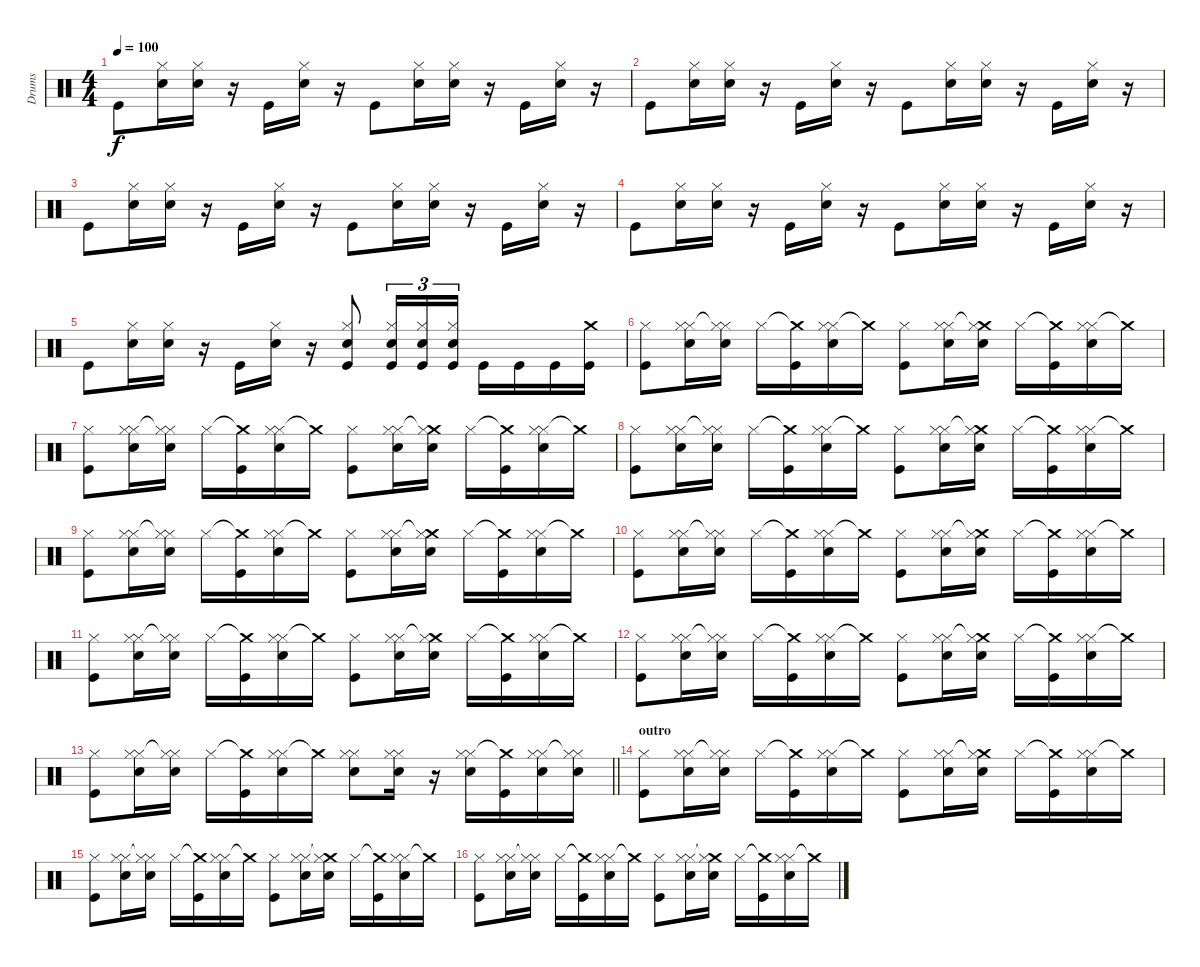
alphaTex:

\track ("Drums" "Drums") {instrument percussion}
\staff {score}
\articulation defaults
\ts (4 4)
\tempo 100
\clef neutral
\ks c "Kick (hit)".8{dy f}
("Hi-Hat (closed)" "Snare (hit) 2").16 ("Hi-Hat (closed)" "Snare (hit) 2").16 r.16 "Kick (hit)".16 ("Hi-Hat (closed)" "Snare (hit) 2").16 r.16 "Kick (hit)".8 ("Hi-Hat (closed)" "Snare (hit) 2").16 ("Hi-Hat (closed)" "Snare (hit) 2").16 r.16 "Kick (hit)".16 ("Hi-Hat (closed)" "Snare (hit) 2").16 r.16 |
"Kick (hit)".8 ("Hi-Hat (closed)" "Snare (hit) 2").16 ("Hi-Hat (closed)" "Snare (hit) 2").16 r.16 "Kick (hit)".16 ("Hi-Hat (closed)" "Snare (hit) 2").16 r.16 "Kick (hit)".8 ("Hi-Hat (closed)" "Snare (hit) 2").16 ("Hi-Hat (closed)" "Snare (hit) 2").16 r.16 "Kick (hit)".16 ("Hi-Hat (closed)" "Snare (hit) 2").16 r.16 |
"Kick (hit)".8 ("Hi-Hat (closed)" "Snare (hit) 2").16 ("Hi-Hat (closed)" "Snare (hit) 2").16 r.16 "Kick (hit)".16 ("Hi-Hat (closed)" "Snare (hit) 2").16 r.16 "Kick (hit)".8 ("Hi-Hat (closed)" "Snare (hit) 2").16 ("Hi-Hat (closed)" "Snare (hit) 2").16 r.16 "Kick (hit)".16 ("Hi-Hat (closed)" "Snare (hit) 2").16 r.16 |
"Kick (hit)".8 ("Hi-Hat (closed)" "Snare (hit) 2").16 ("Hi-Hat (closed)" "Snare (hit) 2").16 r.16 "Kick (hit)".16 ("Hi-Hat (closed)" "Snare (hit) 2").16 r.16 "Kick (hit)".8 ("Hi-Hat (closed)" "Snare (hit) 2").16 ("Hi-Hat (closed)" "Snare (hit) 2").16 r.16 "Kick (hit)".16 ("Hi-Hat (closed)" "Snare (hit) 2").16 r.16 |
"Kick (hit)".8 ("Hi-Hat (closed)" "Snare (hit) 2").16 ("Hi-Hat (closed)" "Snare (hit) 2").16 r.16 "Kick (hit)".16 ("Hi-Hat (closed)" "Snare (hit) 2").16 r.16 ("Hi-Hat (closed)" "Snare (hit) 2" "Kick (hit)").8 ("Hi-Hat (closed)" "Snare (hit) 2" "Kick (hit)").16{tu (3 2)} ("Hi-Hat (closed)" "Snare (hit) 2" "Kick (hit)").16{tu (3 2)} ("Hi-Hat (closed)" "Snare (hit) 2" "Kick (hit)").16{tu (3 2)} "Kick (hit)".16 "Kick (hit)".16 "Kick (hit)".16 ("Crash medium (hit)" "Kick (hit)").16 |
("Hi-Hat (closed)" "Kick (hit)").8 ("Hi-Hat (closed)" "Hi-Hat (closed)" "Snare (hit) 2").16 ("Hi-Hat (closed)"{t} "Hi-Hat (closed)" "Snare (hit) 2").16 "Hi-Hat (closed)".16 ("Crash medium (hit)"{t} "Kick (hit)").16 ("Hi-Hat (closed)" "Hi-Hat (closed)" "Snare (hit) 2").16 "Crash medium (hit)"{t}.16 ("Hi-Hat (closed)" "Kick (hit)").8 ("Hi-Hat (closed)" "Hi-Hat (closed)" "Snare (hit) 2").16 ("Crash medium (hit)"{t} "Hi-Hat (closed)" "Snare (hit) 2").16 "Hi-Hat (closed)".16 ("Crash medium (hit)"{t} "Kick (hit)").16 ("Hi-Hat (closed)" "Hi-Hat (closed)" "Snare (hit) 2").16 "Crash medium (hit)"{t}.16 |
("Hi-Hat (closed)" "Kick (hit)").8 ("Hi-Hat (closed)" "Hi-Hat (closed)" "Snare (hit) 2").16 ("Hi-Hat (closed)"{t} "Hi-Hat (closed)" "Snare (hit) 2").16 "Hi-Hat (closed)".16 ("Crash medium (hit)"{t} "Kick (hit)").16 ("Hi-Hat (closed)" "Hi-Hat (closed)" "Snare (hit) 2").16 "Crash medium (hit)"{t}.16 ("Hi-Hat (closed)" "Kick (hit)").8 ("Hi-Hat (closed)" "Hi-Hat (closed)" "Snare (hit) 2").16 ("Crash medium (hit)"{t} "Hi-Hat (closed)" "Snare (hit) 2").16 "Hi-Hat (closed)".16 ("Crash medium (hit)"{t} "Kick (hit)").16 ("Hi-Hat (closed)" "Hi-Hat (closed)" "Snare (hit) 2").16 "Crash medium (hit)"{t}.16 |
("Hi-Hat (closed)" "Kick (hit)").8 ("Hi-Hat (closed)" "Hi-Hat (closed)" "Snare (hit) 2").16 ("Hi-Hat (closed)"{t} "Hi-Hat (closed)" "Snare (hit) 2").16 "Hi-Hat (closed)".16 ("Crash medium (hit)"{t} "Kick (hit)").16 ("Hi-Hat (closed)" "Hi-Hat (closed)" "Snare (hit) 2").16 "Crash medium (hit)"{t}.16 ("Hi-Hat (closed)" "Kick (hit)").8 ("Hi-Hat (closed)" "Hi-Hat (closed)" "Snare (hit) 2").16 ("Crash medium (hit)"{t} "Hi-Hat (closed)" "Snare (hit) 2").16 "Hi-Hat (closed)".16 ("Crash medium (hit)"{t} "Kick (hit)").16 ("Hi-Hat (closed)" "Hi-Hat (closed)" "Snare (hit) 2").16 "Crash medium (hit)"{t}.16 |
("Hi-Hat (closed)" "Kick (hit)").8 ("Hi-Hat (closed)" "Hi-Hat (closed)" "Snare (hit) 2").16 ("Hi-Hat (closed)"{t} "Hi-Hat (closed)" "Snare (hit) 2").16 "Hi-Hat (closed)".16 ("Crash medium (hit)"{t} "Kick (hit)").16 ("Hi-Hat (closed)" "Hi-Hat (closed)" "Snare (hit) 2").16 "Crash medium (hit)"{t}.16 ("Hi-Hat (closed)" "Kick (hit)").8 ("Hi-Hat (closed)" "Hi-Hat (closed)" "Snare (hit) 2").16 ("Crash medium (hit)"{t} "Hi-Hat (closed)" "Snare (hit) 2").16 "Hi-Hat (closed)".16 ("Crash medium (hit)"{t} "Kick (hit)").16 ("Hi-Hat (closed)" "Hi-Hat (closed)" "Snare (hit) 2").16 "Crash medium (hit)"{t}.16 |
("Hi-Hat (closed)" "Kick (hit)").8 ("Hi-Hat (closed)" "Hi-Hat (closed)" "Snare (hit) 2").16 ("Hi-Hat (closed)"{t} "Hi-Hat (closed)" "Snare (hit) 2").16 "Hi-Hat (closed)".16 ("Crash medium (hit)"{t} "Kick (hit)").16 ("Hi-Hat (closed)" "Hi-Hat (closed)" "Snare (hit) 2").16 "Crash medium (hit)"{t}.16 ("Hi-Hat (closed)" "Kick (hit)").8 ("Hi-Hat (closed)" "Hi-Hat (closed)" "Snare (hit) 2").16 ("Crash medium (hit)"{t} "Hi-Hat (closed)" "Snare (hit) 2").16 "Hi-Hat (closed)".16 ("Crash medium (hit)"{t} "Kick (hit)").16 ("Hi-Hat (closed)" "Hi-Hat (closed)" "Snare (hit) 2").16 "Crash medium (hit)"{t}.16 |
("Hi-Hat (closed)" "Kick (hit)").8 ("Hi-Hat (closed)" "Hi-Hat (closed)" "Snare (hit) 2").16 ("Hi-Hat (closed)"{t} "Hi-Hat (closed)" "Snare (hit) 2").16 "Hi-Hat (closed)".16 ("Crash medium (hit)"{t} "Kick (hit)").16 ("Hi-Hat (closed)" "Hi-Hat (closed)" "Snare (hit) 2").16 "Crash medium (hit)"{t}.16 ("Hi-Hat (closed)" "Kick (hit)").8 ("Hi-Hat (closed)" "Hi-Hat (closed)" "Snare (hit) 2").16 ("Crash medium (hit)"{t} "Hi-Hat (closed)" "Snare (hit) 2").16 "Hi-Hat (closed)".16 ("Crash medium (hit)"{t} "Kick (hit)").16 ("Hi-Hat (closed)" "Hi-Hat (closed)" "Snare (hit) 2").16 "Crash medium (hit)"{t}.16 |
("Hi-Hat (closed)" "Kick (hit)").8 ("Hi-Hat (closed)" "Hi-Hat (closed)" "Snare (hit) 2").16 ("Hi-Hat (closed)"{t} "Hi-Hat (closed)" "Snare (hit) 2").16 "Hi-Hat (closed)".16 ("Crash medium (hit)"{t} "Kick (hit)").16 ("Hi-Hat (closed)" "Hi-Hat (closed)" "Snare (hit) 2").16 "Crash medium (hit)"{t}.16 ("Hi-Hat (closed)" "Kick (hit)").8 ("Hi-Hat (closed)" "Hi-Hat (closed)" "Snare (hit) 2").16 ("Crash medium (hit)"{t} "Hi-Hat (closed)" "Snare (hit) 2").16 "Hi-Hat (closed)".16 ("Crash medium (hit)"{t} "Kick (hit)").16 ("Hi-Hat (closed)" "Hi-Hat (closed)" "Snare (hit) 2").16 "Crash medium (hit)"{t}.16 |
\barLineRight lightlight
("Hi-Hat (closed)" "Kick (hit)").8 ("Hi-Hat (closed)" "Hi-Hat (closed)" "Snare (hit) 2").16 ("Hi-Hat (closed)"{t} "Hi-Hat (closed)" "Snare (hit) 2").16 "Hi-Hat (closed)".16 ("Crash medium (hit)"{t} "Kick (hit)").16 ("Hi-Hat (closed)" "Hi-Hat (closed)" "Snare (hit) 2").16 "Crash medium (hit)"{t}.16 ("Hi-Hat (closed)" "Hi-Hat (closed)" "Snare (hit) 2").8 ("Hi-Hat (closed)" "Hi-Hat (closed)" "Snare (hit) 2").16 r.16 ("Hi-Hat (closed)" "Hi-Hat (closed)" "Snare (hit) 2").16 ("Crash medium (hit)"{t} "Kick (hit)").16 ("Hi-Hat (closed)" "Hi-Hat (closed)" "Snare (hit) 2").16 ("Hi-Hat (closed)"{t} "Hi-Hat (closed)" "Snare (hit) 2").16 |
\section ("" "outro")
("Hi-Hat (closed)" "Kick (hit)").8 ("Hi-Hat (closed)" "Hi-Hat (closed)" "Snare (hit) 2").16 ("Hi-Hat (closed)"{t} "Hi-Hat (closed)" "Snare (hit) 2").16 "Hi-Hat (closed)".16 ("Crash medium (hit)"{t} "Kick (hit)").16 ("Hi-Hat (closed)" "Hi-Hat (closed)" "Snare (hit) 2").16 "Crash medium (hit)"{t}.16 ("Hi-Hat (closed)" "Kick (hit)").8 ("Hi-Hat (closed)" "Hi-Hat (closed)" "Snare (hit) 2").16 ("Crash medium (hit)"{t} "Hi-Hat (closed)" "Snare (hit) 2").16 "Hi-Hat (closed)".16 ("Crash medium (hit)"{t} "Kick (hit)").16 ("Hi-Hat (closed)" "Hi-Hat (closed)" "Snare (hit) 2").16 "Crash medium (hit)"{t}.16 |
("Hi-Hat (closed)" "Kick (hit)").8 ("Hi-Hat (closed)" "Hi-Hat (closed)" "Snare (hit) 2").16 ("Hi-Hat (closed)"{t} "Hi-Hat (closed)" "Snare (hit) 2").16 "Hi-Hat (closed)".16 ("Crash medium (hit)"{t} "Kick (hit)").16 ("Hi-Hat (closed)" "Hi-Hat (closed)" "Snare (hit) 2").16 "Crash medium (hit)"{t}.16 ("Hi-Hat (closed)" "Kick (hit)").8 ("Hi-Hat (closed)" "Hi-Hat (closed)" "Snare (hit) 2").16 ("Crash medium (hit)"{t} "Hi-Hat (closed)" "Snare (hit) 2").16 "Hi-Hat (closed)".16 ("Crash medium (hit)"{t} "Kick (hit)").16 ("Hi-Hat (closed)" "Hi-Hat (closed)" "Snare (hit) 2").16 "Crash medium (hit)"{t}.16 |
("Hi-Hat (closed)" "Kick (hit)").8 ("Hi-Hat (closed)" "Hi-Hat (closed)" "Snare (hit) 2").16 ("Hi-Hat (closed)"{t} "Hi-Hat (closed)" "Snare (hit) 2").16 "Hi-Hat (closed)".16 ("Crash medium (hit)"{t} "Kick (hit)").16 ("Hi-Hat (closed)" "Hi-Hat (closed)" "Snare (hit) 2").16 "Crash medium (hit)"{t}.16 ("Hi-Hat (closed)" "Kick (hit)").8 ("Hi-Hat (closed)" "Hi-Hat (closed)" "Snare (hit) 2").16 ("Crash medium (hit)"{t} "Hi-Hat (closed)" "Snare (hit) 2").16 "Hi-Hat (closed)".16 ("Crash medium (hit)"{t} "Kick (hit)").16 ("Hi-Hat (closed)" "Hi-Hat (closed)" "Snare (hit) 2").16 "Crash medium (hit)"{t}.16
